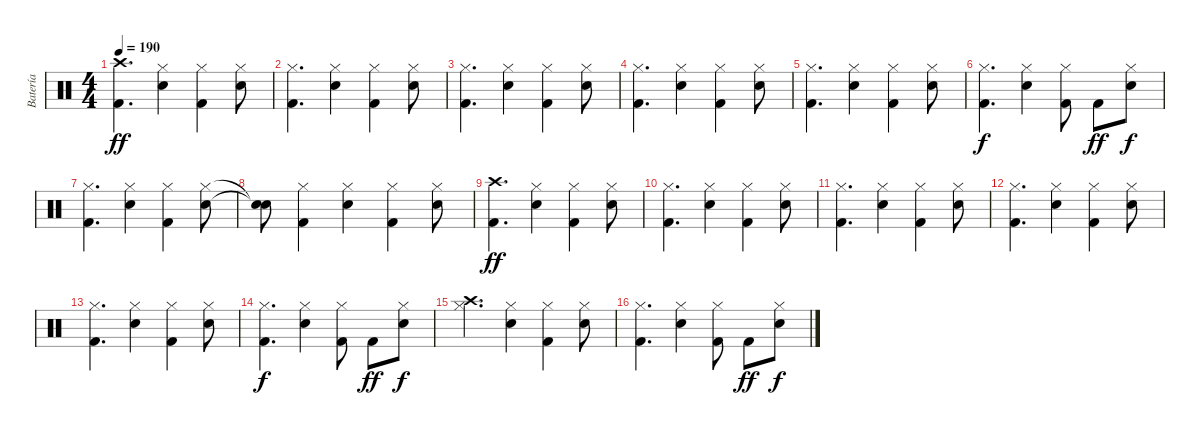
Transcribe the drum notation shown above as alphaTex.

\track ("Batería" "Batería") {instrument percussion}
\staff {score}
\articulation defaults
\ts (4 4)
\tempo 190
\clef neutral
\ks c
("Crash high (hit)" "Kick (hit) 2").4{d dy ff} ("Electric Snare (hit)" "Hi-Hat (closed)").4 ("Kick (hit) 2" "Hi-Hat (closed)").4 ("Electric Snare (hit)" "Hi-Hat (closed)").8 |
("Kick (hit) 2" "Hi-Hat (closed)").4{d} ("Electric Snare (hit)" "Hi-Hat (closed)").4 ("Kick (hit) 2" "Hi-Hat (closed)").4 ("Electric Snare (hit)" "Hi-Hat (closed)").8 |
("Kick (hit) 2" "Hi-Hat (closed)").4{d} ("Electric Snare (hit)" "Hi-Hat (closed)").4 ("Kick (hit) 2" "Hi-Hat (closed)").4 ("Electric Snare (hit)" "Hi-Hat (closed)").8 |
("Kick (hit) 2" "Hi-Hat (closed)").4{d} ("Electric Snare (hit)" "Hi-Hat (closed)").4 ("Kick (hit) 2" "Hi-Hat (closed)").4 ("Electric Snare (hit)" "Hi-Hat (closed)").8 |
("Kick (hit) 2" "Hi-Hat (closed)").4{d} ("Electric Snare (hit)" "Hi-Hat (closed)").4 ("Kick (hit) 2" "Hi-Hat (closed)").4 ("Electric Snare (hit)" "Hi-Hat (closed)").8 |
("Kick (hit) 2" "Hi-Hat (closed)").4{d dy f} ("Electric Snare (hit)" "Hi-Hat (closed)").4 ("Kick (hit) 2" "Hi-Hat (closed)").8 "Kick (hit) 2".8{dy ff} ("Electric Snare (hit)" "Hi-Hat (closed)").8{dy f} |
("Kick (hit) 2" "Hi-Hat (closed)").4{d} ("Electric Snare (hit)" "Hi-Hat (closed)").4 ("Kick (hit) 2" "Hi-Hat (closed)").4 ("Electric Snare (hit)" "Hi-Hat (closed)").8 |
("Snare (hit)"{t} "Snare (hit)"{t}).8 ("Kick (hit) 2" "Hi-Hat (closed)").4 ("Electric Snare (hit)" "Hi-Hat (closed)").4 ("Kick (hit) 2" "Hi-Hat (closed)").4 ("Electric Snare (hit)" "Hi-Hat (closed)").8 |
("Crash high (hit)" "Kick (hit) 2").4{d dy ff} ("Electric Snare (hit)" "Hi-Hat (closed)").4 ("Kick (hit) 2" "Hi-Hat (closed)").4 ("Electric Snare (hit)" "Hi-Hat (closed)").8 |
("Kick (hit) 2" "Hi-Hat (closed)").4{d} ("Electric Snare (hit)" "Hi-Hat (closed)").4 ("Kick (hit) 2" "Hi-Hat (closed)").4 ("Electric Snare (hit)" "Hi-Hat (closed)").8 |
("Kick (hit) 2" "Hi-Hat (closed)").4{d} ("Electric Snare (hit)" "Hi-Hat (closed)").4 ("Kick (hit) 2" "Hi-Hat (closed)").4 ("Electric Snare (hit)" "Hi-Hat (closed)").8 |
("Kick (hit) 2" "Hi-Hat (closed)").4{d} ("Electric Snare (hit)" "Hi-Hat (closed)").4 ("Kick (hit) 2" "Hi-Hat (closed)").4 ("Electric Snare (hit)" "Hi-Hat (closed)").8 |
("Kick (hit) 2" "Hi-Hat (closed)").4{d} ("Electric Snare (hit)" "Hi-Hat (closed)").4 ("Kick (hit) 2" "Hi-Hat (closed)").4 ("Electric Snare (hit)" "Hi-Hat (closed)").8 |
("Kick (hit) 2" "Hi-Hat (closed)").4{d dy f} ("Electric Snare (hit)" "Hi-Hat (closed)").4 ("Kick (hit) 2" "Hi-Hat (closed)").8 "Kick (hit) 2".8{dy ff} ("Electric Snare (hit)" "Hi-Hat (closed)").8{dy f} |
("Crash high (hit)" "Hi-Hat (closed)").4{d} ("Electric Snare (hit)" "Hi-Hat (closed)").4 ("Kick (hit) 2" "Hi-Hat (closed)").4 ("Electric Snare (hit)" "Hi-Hat (closed)").8 |
("Kick (hit) 2" "Hi-Hat (closed)").4{d} ("Electric Snare (hit)" "Hi-Hat (closed)").4 ("Kick (hit) 2" "Hi-Hat (closed)").8 "Kick (hit) 2".8{dy ff} ("Electric Snare (hit)" "Hi-Hat (closed)").8{dy f}
